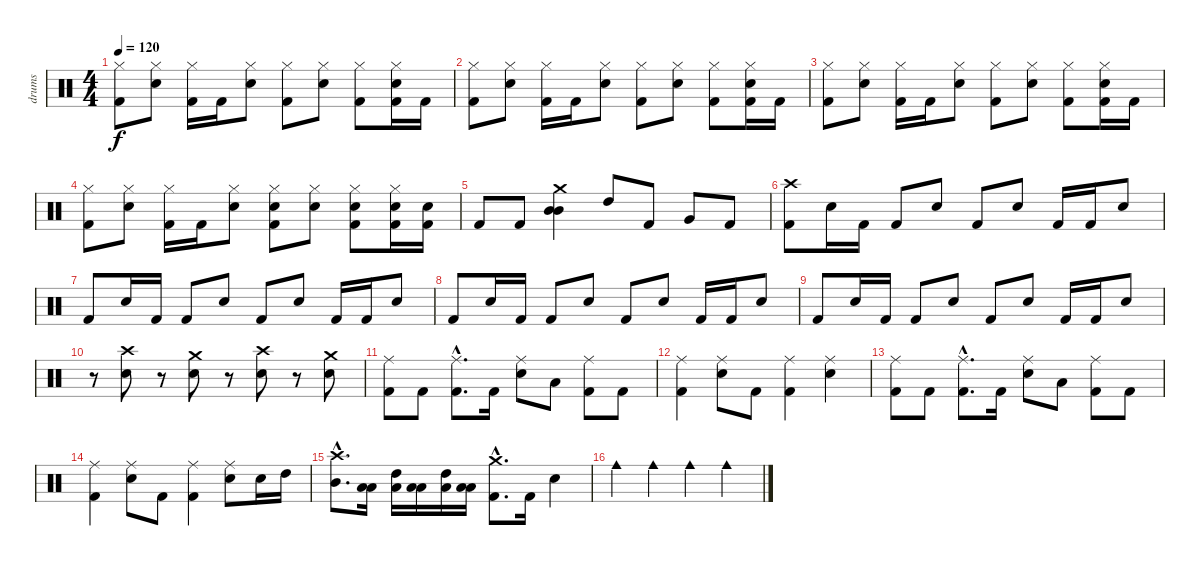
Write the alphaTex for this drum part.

\track ("drums" "drums") {instrument percussion}
\staff {score}
\articulation defaults
\ts (4 4)
\tempo 120
\clef neutral
\ks c
("Hi-Hat (closed)" "Kick (hit) 2").8{dy f} ("Hi-Hat (closed)" "Electric Snare (hit)").8 ("Hi-Hat (closed)" "Kick (hit) 2").16 "Kick (hit) 2".16 ("Hi-Hat (closed)" "Electric Snare (hit)").8 ("Hi-Hat (closed)" "Kick (hit) 2").8 ("Hi-Hat (closed)" "Electric Snare (hit)").8 ("Hi-Hat (closed)" "Kick (hit) 2").8 ("Hi-Hat (closed)" "Electric Snare (hit)" "Kick (hit) 2").16 "Kick (hit) 2".16 |
("Hi-Hat (closed)" "Kick (hit) 2").8 ("Hi-Hat (closed)" "Electric Snare (hit)").8 ("Hi-Hat (closed)" "Kick (hit) 2").16 "Kick (hit) 2".16 ("Hi-Hat (closed)" "Electric Snare (hit)").8 ("Hi-Hat (closed)" "Kick (hit) 2").8 ("Hi-Hat (closed)" "Electric Snare (hit)").8 ("Hi-Hat (closed)" "Kick (hit) 2").8 ("Hi-Hat (closed)" "Electric Snare (hit)" "Kick (hit) 2").16 "Kick (hit) 2".16 |
("Hi-Hat (closed)" "Kick (hit) 2").8 ("Hi-Hat (closed)" "Electric Snare (hit)").8 ("Hi-Hat (closed)" "Kick (hit) 2").16 "Kick (hit) 2".16 ("Hi-Hat (closed)" "Electric Snare (hit)").8 ("Hi-Hat (closed)" "Kick (hit) 2").8 ("Hi-Hat (closed)" "Electric Snare (hit)").8 ("Hi-Hat (closed)" "Kick (hit) 2").8 ("Hi-Hat (closed)" "Electric Snare (hit)" "Kick (hit) 2").16 "Kick (hit) 2".16 |
("Hi-Hat (closed)" "Kick (hit) 2").8 ("Hi-Hat (closed)" "Electric Snare (hit)").8 ("Hi-Hat (closed)" "Kick (hit) 2").16 "Kick (hit) 2".16 ("Hi-Hat (closed)" "Electric Snare (hit)").8 ("Hi-Hat (closed)" "Electric Snare (hit)" "Kick (hit) 2").8 ("Hi-Hat (closed)" "Electric Snare (hit)").8 ("Hi-Hat (closed)" "Electric Snare (hit)" "Kick (hit) 2").8 ("Hi-Hat (closed)" "Electric Snare (hit)" "Kick (hit) 2").16 ("Electric Snare (hit)" "Kick (hit) 2").16 |
"Kick (hit) 2".8 "Kick (hit) 2".8 ("Mid Tom (hit)" "Mid Tom (hit)" "Crash medium (hit)").4 "High Tom (hit)".8 "Kick (hit) 2".8 "Very Low Tom (hit)".8 "Kick (hit) 2".8 |
("Crash high (hit)" "Kick (hit) 2").8 "Electric Snare (hit)".16 "Kick (hit) 2".16 "Kick (hit) 2".8 "Electric Snare (hit)".8 "Kick (hit) 2".8 "Electric Snare (hit)".8 "Kick (hit) 2".16 "Kick (hit) 2".16 "Electric Snare (hit)".8 |
"Kick (hit) 2".8 "Electric Snare (hit)".16 "Kick (hit) 2".16 "Kick (hit) 2".8 "Electric Snare (hit)".8 "Kick (hit) 2".8 "Electric Snare (hit)".8 "Kick (hit) 2".16 "Kick (hit) 2".16 "Electric Snare (hit)".8 |
"Kick (hit) 2".8 "Electric Snare (hit)".16 "Kick (hit) 2".16 "Kick (hit) 2".8 "Electric Snare (hit)".8 "Kick (hit) 2".8 "Electric Snare (hit)".8 "Kick (hit) 2".16 "Kick (hit) 2".16 "Electric Snare (hit)".8 |
"Kick (hit) 2".8 "Electric Snare (hit)".16 "Kick (hit) 2".16 "Kick (hit) 2".8 "Electric Snare (hit)".8 "Kick (hit) 2".8 "Electric Snare (hit)".8 "Kick (hit) 2".16 "Kick (hit) 2".16 "Electric Snare (hit)".8 |
r.8 ("Crash high (hit)" "Electric Snare (hit)").8 r.8 ("Crash medium (hit)" "Electric Snare (hit)").8 r.8 ("Crash high (hit)" "Electric Snare (hit)").8 r.8 ("Crash medium (hit)" "Electric Snare (hit)").8 |
("Ride (middle)" "Kick (hit) 2").8 "Kick (hit) 2".8 ("Ride (middle)"{hac} "Kick (hit) 2"{hac}).8{d} "Kick (hit) 2".16 ("Ride (middle)" "Electric Snare (hit)").8 "Low Tom (hit)".8 ("Ride (middle)" "Kick (hit) 2").8 "Kick (hit) 2".8 |
("Ride (middle)" "Kick (hit) 2").4 ("Ride (middle)" "Electric Snare (hit)").8 "Kick (hit) 2".8 ("Ride (middle)" "Kick (hit) 2").4 ("Ride (middle)" "Electric Snare (hit)").4 |
("Ride (middle)" "Kick (hit) 2").8 "Kick (hit) 2".8 ("Ride (middle)"{hac} "Kick (hit) 2"{hac}).8{d} "Kick (hit) 2".16 ("Ride (middle)" "Electric Snare (hit)").8 "Low Tom (hit)".8 ("Ride (middle)" "Kick (hit) 2").8 "Kick (hit) 2".8 |
("Ride (middle)" "Kick (hit) 2").4 ("Ride (middle)" "Electric Snare (hit)").8 "Kick (hit) 2".8 ("Ride (middle)" "Kick (hit) 2").4 ("Ride (middle)" "Electric Snare (hit)").8 "Electric Snare (hit)".16 "High Tom (hit)".16 |
("Crash high (hit)"{hac} "Mid Tom (hit)"{hac}).8{d} ("Low Floor Tom (hit)" "Low Tom (hit)").16 ("Low Floor Tom (hit)" "High Tom (hit)").16 ("Low Floor Tom (hit)" "Low Tom (hit)").16 ("Low Floor Tom (hit)" "High Tom (hit)").16 ("Low Floor Tom (hit)" "Low Tom (hit)").16 ("Crash medium (hit)"{hac} "Kick (hit) 2"{hac}).8{d} "Kick (hit) 2".16 "Electric Snare (hit)".4 |
"Cowbell medium (hit)".4 "Cowbell medium (hit)".4 "Cowbell medium (hit)".4 "Cowbell medium (hit)".4
